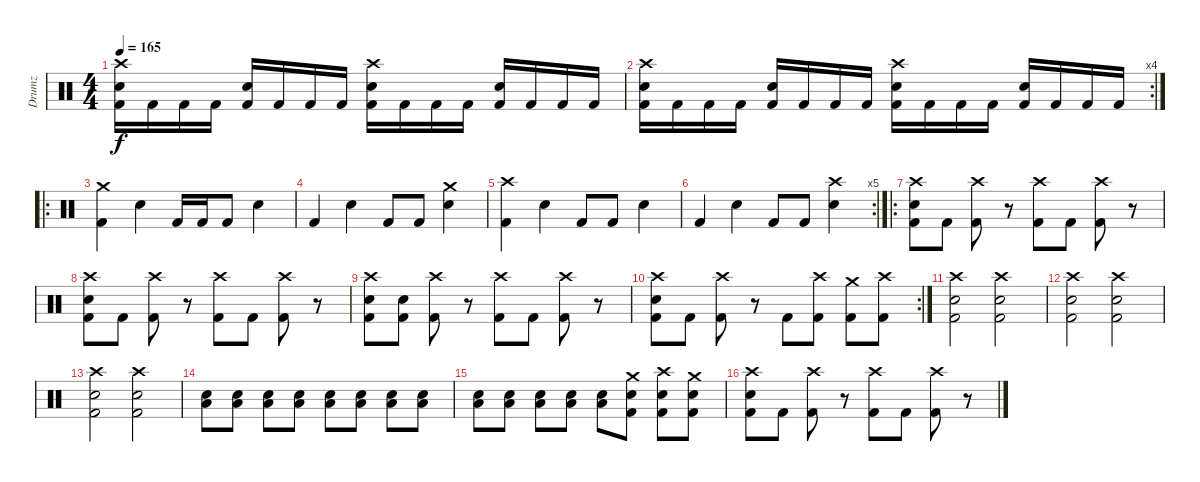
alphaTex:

\track ("Drumz" "Drumz") {instrument percussion}
\staff {score}
\articulation defaults
\ts (4 4)
\tempo 165
\clef neutral
\ks c
("Crash high (hit)" "Kick (hit) 2" "Snare (hit) 2").16{dy f} "Kick (hit) 2".16 "Kick (hit) 2".16 "Kick (hit) 2".16 ("Snare (hit) 2" "Kick (hit) 2").16 "Kick (hit) 2".16 "Kick (hit) 2".16 "Kick (hit) 2".16 ("Crash high (hit)" "Kick (hit) 2" "Snare (hit) 2").16 "Kick (hit) 2".16 "Kick (hit) 2".16 "Kick (hit) 2".16 ("Snare (hit) 2" "Kick (hit) 2").16 "Kick (hit) 2".16 "Kick (hit) 2".16 "Kick (hit) 2".16 |
\rc 4
("Crash high (hit)" "Kick (hit) 2" "Snare (hit) 2").16 "Kick (hit) 2".16 "Kick (hit) 2".16 "Kick (hit) 2".16 ("Snare (hit) 2" "Kick (hit) 2").16 "Kick (hit) 2".16 "Kick (hit) 2".16 "Kick (hit) 2".16 ("Crash high (hit)" "Kick (hit) 2" "Snare (hit) 2").16 "Kick (hit) 2".16 "Kick (hit) 2".16 "Kick (hit) 2".16 ("Snare (hit) 2" "Kick (hit) 2").16 "Kick (hit) 2".16 "Kick (hit) 2".16 "Kick (hit) 2".16 |
\ro
("Crash medium (hit)" "Kick (hit) 2").4 "Electric Snare (hit)".4 "Kick (hit) 2".16 "Kick (hit) 2".16 "Kick (hit) 2".8 "Electric Snare (hit)".4 |
"Kick (hit) 2".4 "Electric Snare (hit)".4 "Kick (hit) 2".8 "Kick (hit) 2".8 ("Crash medium (hit)" "Electric Snare (hit)").4 |
("Crash high (hit)" "Kick (hit) 2").4 "Electric Snare (hit)".4 "Kick (hit) 2".8 "Kick (hit) 2".8 "Electric Snare (hit)".4 |
\rc 5 "Kick (hit) 2".4 "Electric Snare (hit)".4 "Kick (hit) 2".8 "Kick (hit) 2".8
("Crash high (hit)" "Electric Snare (hit)").4 |
\ro
("Kick (hit) 2" "Crash high (hit)" "Snare (hit) 2").8 "Kick (hit) 2".8 ("Kick (hit) 2" "Crash high (hit)").8 r.8 ("Kick (hit) 2" "Crash high (hit)").8 "Kick (hit) 2".8 ("Kick (hit) 2" "Crash high (hit)").8 r.8 |
("Kick (hit) 2" "Crash high (hit)" "Snare (hit) 2").8 "Kick (hit) 2".8 ("Kick (hit) 2" "Crash high (hit)").8 r.8 ("Kick (hit) 2" "Crash high (hit)").8 "Kick (hit) 2".8 ("Kick (hit) 2" "Crash high (hit)").8 r.8 |
("Kick (hit) 2" "Crash high (hit)" "Snare (hit) 2").8 ("Kick (hit) 2" "Snare (hit)").8 ("Kick (hit) 2" "Crash high (hit)").8 r.8 ("Kick (hit) 2" "Crash high (hit)").8 "Kick (hit) 2".8 ("Kick (hit) 2" "Crash high (hit)").8 r.8 |
\rc 2
("Kick (hit) 2" "Crash high (hit)" "Snare (hit) 2").8 "Kick (hit) 2".8 ("Kick (hit) 2" "Crash high (hit)").8 r.8 "Kick (hit) 2".8 ("Kick (hit) 2" "Crash high (hit)").8 ("Kick (hit) 2" "Crash medium (hit)").8 ("Kick (hit) 2" "Crash high (hit)").8 |
("Crash high (hit)" "Snare (hit) 2" "Kick (hit) 2").2 ("Crash high (hit)" "Snare (hit) 2" "Kick (hit) 2").2 |
("Crash high (hit)" "Snare (hit) 2" "Kick (hit) 2").2 ("Crash high (hit)" "Snare (hit) 2" "Kick (hit) 2").2 |
("Crash high (hit)" "Snare (hit) 2" "Kick (hit) 2").2 ("Crash high (hit)" "Snare (hit) 2" "Kick (hit) 2").2 |
("Snare (hit) 2" "Low Floor Tom (hit)").8 ("Snare (hit) 2" "Low Floor Tom (hit)").8 ("Snare (hit) 2" "Low Floor Tom (hit)").8 ("Snare (hit) 2" "Low Floor Tom (hit)").8 ("Snare (hit) 2" "Low Floor Tom (hit)").8 ("Snare (hit) 2" "Low Floor Tom (hit)").8 ("Snare (hit) 2" "Low Floor Tom (hit)").8 ("Snare (hit) 2" "Low Floor Tom (hit)").8 |
("Snare (hit) 2" "Low Floor Tom (hit)").8 ("Snare (hit) 2" "Low Floor Tom (hit)").8 ("Snare (hit) 2" "Low Floor Tom (hit)").8 ("Snare (hit) 2" "Low Floor Tom (hit)").8 ("Snare (hit) 2" "Low Floor Tom (hit)").8 ("Crash medium (hit)" "Snare (hit) 2" "Kick (hit) 2").8 ("Crash high (hit)" "Snare (hit) 2" "Kick (hit) 2").8 ("Crash medium (hit)" "Snare (hit) 2" "Kick (hit) 2").8 |
("Kick (hit) 2" "Crash high (hit)" "Snare (hit) 2").8 "Kick (hit) 2".8 ("Kick (hit) 2" "Crash high (hit)").8 r.8 ("Kick (hit) 2" "Crash high (hit)").8 "Kick (hit) 2".8 ("Kick (hit) 2" "Crash high (hit)").8 r.8
